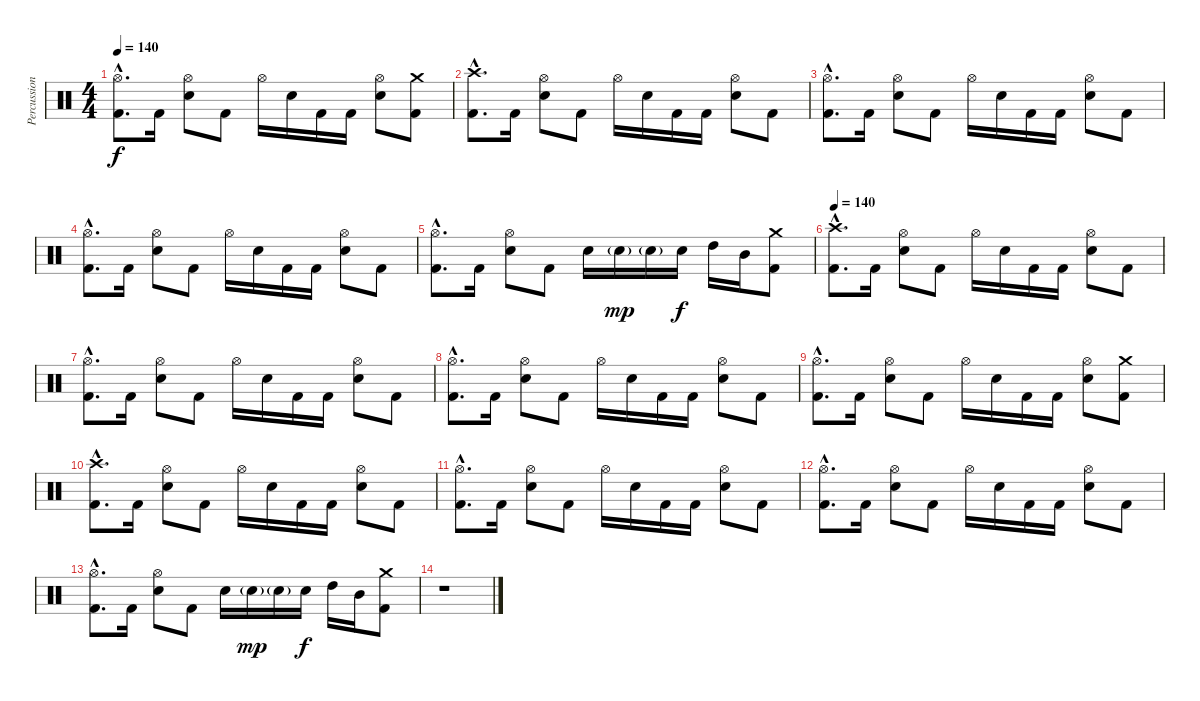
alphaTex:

\track ("Percussions" "Percussion") {instrument percussion}
\staff {score}
\articulation defaults
\ts (4 4)
\tempo 140
\clef neutral
\ks c
("Hi-Hat (open)"{hac} "Kick (hit) 2"{hac}).8{d dy f} "Kick (hit) 2".16 ("Hi-Hat (open)" "Electric Snare (hit)").8 "Kick (hit) 2".8 "Hi-Hat (open)".16 "Electric Snare (hit)".16 "Kick (hit) 2".16 "Kick (hit) 2".16 ("Hi-Hat (open)" "Electric Snare (hit)").8 ("Crash medium (hit)" "Kick (hit) 2").8 |
("Crash high (hit)"{hac} "Kick (hit) 2"{hac}).8{d} "Kick (hit) 2".16 ("Hi-Hat (open)" "Electric Snare (hit)").8 "Kick (hit) 2".8 "Hi-Hat (open)".16 "Electric Snare (hit)".16 "Kick (hit) 2".16 "Kick (hit) 2".16 ("Hi-Hat (open)" "Electric Snare (hit)").8 "Kick (hit) 2".8 |
("Hi-Hat (open)"{hac} "Kick (hit) 2"{hac}).8{d} "Kick (hit) 2".16 ("Hi-Hat (open)" "Electric Snare (hit)").8 "Kick (hit) 2".8 "Hi-Hat (open)".16 "Electric Snare (hit)".16 "Kick (hit) 2".16 "Kick (hit) 2".16 ("Hi-Hat (open)" "Electric Snare (hit)").8 "Kick (hit) 2".8 |
("Hi-Hat (open)"{hac} "Kick (hit) 2"{hac}).8{d} "Kick (hit) 2".16 ("Hi-Hat (open)" "Electric Snare (hit)").8 "Kick (hit) 2".8 "Hi-Hat (open)".16 "Electric Snare (hit)".16 "Kick (hit) 2".16 "Kick (hit) 2".16 ("Hi-Hat (open)" "Electric Snare (hit)").8 "Kick (hit) 2".8 |
("Hi-Hat (open)"{hac} "Kick (hit) 2"{hac}).8{d} "Kick (hit) 2".16 ("Hi-Hat (open)" "Electric Snare (hit)").8 "Kick (hit) 2".8 "Electric Snare (hit)".16 "Electric Snare (hit)"{g}.16{dy mp} "Electric Snare (hit)"{g}.16 "Electric Snare (hit)".16{dy f} "High Tom (hit)".16 "Mid Tom (hit)".16 ("Crash medium (hit)" "Kick (hit) 2").8 |
\tempo 140
("Crash high (hit)"{hac} "Kick (hit) 2"{hac}).8{d volume 14} "Kick (hit) 2".16 ("Hi-Hat (open)" "Electric Snare (hit)").8 "Kick (hit) 2".8 "Hi-Hat (open)".16 "Electric Snare (hit)".16 "Kick (hit) 2".16 "Kick (hit) 2".16 ("Hi-Hat (open)" "Electric Snare (hit)").8 "Kick (hit) 2".8 |
("Hi-Hat (open)"{hac} "Kick (hit) 2"{hac}).8{d volume 12} "Kick (hit) 2".16 ("Hi-Hat (open)" "Electric Snare (hit)").8 "Kick (hit) 2".8 "Hi-Hat (open)".16 "Electric Snare (hit)".16 "Kick (hit) 2".16 "Kick (hit) 2".16 ("Hi-Hat (open)" "Electric Snare (hit)").8 "Kick (hit) 2".8 |
("Hi-Hat (open)"{hac} "Kick (hit) 2"{hac}).8{d volume 10} "Kick (hit) 2".16 ("Hi-Hat (open)" "Electric Snare (hit)").8 "Kick (hit) 2".8 "Hi-Hat (open)".16 "Electric Snare (hit)".16 "Kick (hit) 2".16 "Kick (hit) 2".16 ("Hi-Hat (open)" "Electric Snare (hit)").8 "Kick (hit) 2".8 |
("Hi-Hat (open)"{hac} "Kick (hit) 2"{hac}).8{d volume 8} "Kick (hit) 2".16 ("Hi-Hat (open)" "Electric Snare (hit)").8 "Kick (hit) 2".8 "Hi-Hat (open)".16 "Electric Snare (hit)".16 "Kick (hit) 2".16 "Kick (hit) 2".16 ("Hi-Hat (open)" "Electric Snare (hit)").8 ("Crash medium (hit)" "Kick (hit) 2").8 |
("Crash high (hit)"{hac} "Kick (hit) 2"{hac}).8{d volume 6} "Kick (hit) 2".16 ("Hi-Hat (open)" "Electric Snare (hit)").8 "Kick (hit) 2".8 "Hi-Hat (open)".16 "Electric Snare (hit)".16 "Kick (hit) 2".16 "Kick (hit) 2".16 ("Hi-Hat (open)" "Electric Snare (hit)").8 "Kick (hit) 2".8 |
("Hi-Hat (open)"{hac} "Kick (hit) 2"{hac}).8{d volume 4} "Kick (hit) 2".16 ("Hi-Hat (open)" "Electric Snare (hit)").8 "Kick (hit) 2".8 "Hi-Hat (open)".16 "Electric Snare (hit)".16 "Kick (hit) 2".16 "Kick (hit) 2".16 ("Hi-Hat (open)" "Electric Snare (hit)").8 "Kick (hit) 2".8 |
("Hi-Hat (open)"{hac} "Kick (hit) 2"{hac}).8{d volume 2} "Kick (hit) 2".16 ("Hi-Hat (open)" "Electric Snare (hit)").8 "Kick (hit) 2".8 "Hi-Hat (open)".16 "Electric Snare (hit)".16 "Kick (hit) 2".16 "Kick (hit) 2".16 ("Hi-Hat (open)" "Electric Snare (hit)").8 "Kick (hit) 2".8 |
("Hi-Hat (open)"{hac} "Kick (hit) 2"{hac}).8{d volume 1} "Kick (hit) 2".16 ("Hi-Hat (open)" "Electric Snare (hit)").8 "Kick (hit) 2".8 "Electric Snare (hit)".16 "Electric Snare (hit)"{g}.16{dy mp} "Electric Snare (hit)"{g}.16 "Electric Snare (hit)".16{dy f} "High Tom (hit)".16 "Mid Tom (hit)".16 ("Crash medium (hit)" "Kick (hit) 2").8 |
r.1
